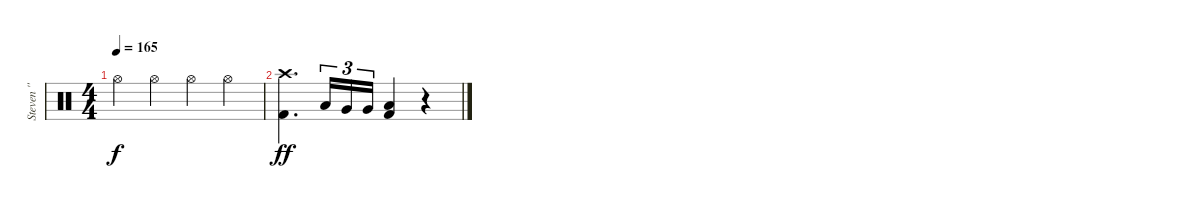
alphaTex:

\track ("Steven '' Popcorn '' Adler" "Steven '' ") {instrument percussion}
\staff {score}
\articulation defaults
\ts (4 4)
\tempo 165
\clef neutral
\ks c "Hi-Hat (open)".4{dy f} "Hi-Hat (open)".4 "Hi-Hat (open)".4 "Hi-Hat (open)".4
|
("Crash high (hit)" "Kick (hit) 2").4{d dy ff} "Low Tom (hit)".16{tu (3 2)} "Very Low Tom (hit)".16{tu (3 2)} "Very Low Tom (hit)".16{tu (3 2)} ("Low Floor Tom (hit)" "Kick (hit) 2").4 r.4
